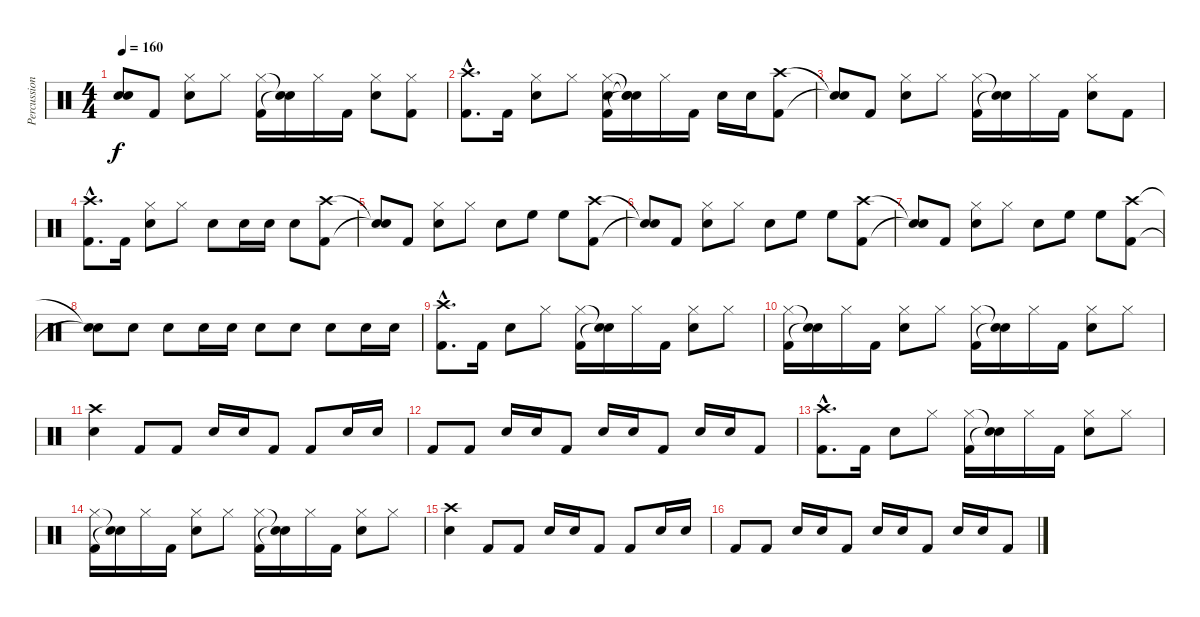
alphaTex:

\track ("Percussion" "Percussion") {instrument percussion}
\staff {score}
\articulation defaults
\ts (4 4)
\tempo 160
\clef neutral
\ks c
("Snare (hit)"{t} "Snare (hit)"{t}).8{dy f} "Kick (hit) 2".8 ("Hi-Hat (closed)" "Snare (hit) 2").8 "Hi-Hat (closed)".8 ("Hi-Hat (closed)" "Kick (hit) 2").16 ("Snare (hit)"{t} "Snare (hit)"{t}).16 "Hi-Hat (closed)".16 "Kick (hit) 2".16 ("Hi-Hat (closed)" "Snare (hit) 2").8 ("Hi-Hat (closed)" "Kick (hit) 2").8 |
("Crash high (hit)"{hac} "Kick (hit) 2"{hac}).8{d} "Kick (hit) 2".16 ("Hi-Hat (closed)" "Snare (hit) 2").8 "Hi-Hat (closed)".8 ("Hi-Hat (closed)" "Snare (hit) 2" "Kick (hit) 2").16 ("Snare (hit)"{t} "Snare (hit)"{t} "Snare (hit)"{t}).16 "Hi-Hat (closed)".16 "Kick (hit) 2".16 "Snare (hit) 2".16 "Snare (hit) 2".16 ("Crash high (hit)" "Kick (hit) 2").8 |
("Snare (hit)"{t} "Snare (hit)"{t}).8 "Kick (hit) 2".8 ("Hi-Hat (closed)" "Snare (hit) 2").8 "Hi-Hat (closed)".8 ("Hi-Hat (closed)" "Kick (hit) 2").16 ("Snare (hit)"{t} "Snare (hit)"{t}).16 "Hi-Hat (closed)".16 "Kick (hit) 2".16 ("Hi-Hat (closed)" "Snare (hit) 2").8 "Kick (hit) 2".8 |
("Crash high (hit)"{hac} "Kick (hit) 2"{hac}).8{d} "Kick (hit) 2".16 ("Hi-Hat (closed)" "Snare (hit) 2").8 "Hi-Hat (closed)".8 "Snare (hit) 2".8 "Snare (hit) 2".16 "Snare (hit) 2".16 "Snare (hit) 2".8 ("Crash high (hit)" "Kick (hit) 2").8 |
("Snare (hit)"{t} "Snare (hit)"{t}).8 "Kick (hit) 2".8 ("Hi-Hat (closed)" "Snare (hit) 2").8 "Hi-Hat (closed)".8 "Snare (hit) 2".8 "High Floor Tom (hit)".8 "High Floor Tom (hit)".8 ("Crash high (hit)" "Kick (hit) 2").8 |
("Snare (hit)"{t} "Snare (hit)"{t}).8 "Kick (hit) 2".8 ("Hi-Hat (closed)" "Snare (hit) 2").8 "Hi-Hat (closed)".8 "Snare (hit) 2".8 "High Floor Tom (hit)".8 "High Floor Tom (hit)".8 ("Crash high (hit)" "Kick (hit) 2").8 |
("Snare (hit)"{t} "Snare (hit)"{t}).8 "Kick (hit) 2".8 ("Hi-Hat (closed)" "Snare (hit) 2").8 "Hi-Hat (closed)".8 "Snare (hit) 2".8 "High Floor Tom (hit)".8 "High Floor Tom (hit)".8 ("Crash high (hit)" "Kick (hit) 2").8 |
("Snare (hit)"{t} "Snare (hit)"{t}).8 "Snare (hit) 2".8 "Snare (hit) 2".8 "Snare (hit) 2".16 "Snare (hit) 2".16 "Snare (hit) 2".8 "Snare (hit) 2".8 "Snare (hit) 2".8 "Snare (hit) 2".16 "Snare (hit) 2".16 |
("Crash high (hit)"{hac} "Kick (hit) 2"{hac}).8{d} "Kick (hit) 2".16 "Snare (hit) 2".8 "Hi-Hat (closed)".8 ("Hi-Hat (closed)" "Kick (hit) 2").16 ("Snare (hit)"{t} "Snare (hit)"{t}).16 "Hi-Hat (closed)".16 "Kick (hit) 2".16 ("Hi-Hat (closed)" "Snare (hit) 2").8 "Hi-Hat (closed)".8 |
("Hi-Hat (closed)" "Kick (hit) 2").16 ("Snare (hit)"{t} "Snare (hit)"{t}).16 "Hi-Hat (closed)".16 "Kick (hit) 2".16 ("Hi-Hat (closed)" "Snare (hit) 2").8 "Hi-Hat (closed)".8 ("Hi-Hat (closed)" "Kick (hit) 2").16 ("Snare (hit)"{t} "Snare (hit)"{t}).16 "Hi-Hat (closed)".16 "Kick (hit) 2".16 ("Hi-Hat (closed)" "Snare (hit) 2").8 "Hi-Hat (closed)".8 |
("Crash high (hit)" "Snare (hit) 2").4 "Kick (hit) 2".8 "Kick (hit) 2".8 "Snare (hit) 2".16 "Snare (hit) 2".16 "Kick (hit) 2".8 "Kick (hit) 2".8 "Snare (hit) 2".16 "Snare (hit) 2".16 |
"Kick (hit) 2".8 "Kick (hit) 2".8 "Snare (hit) 2".16 "Snare (hit) 2".16 "Kick (hit) 2".8 "Snare (hit) 2".16 "Snare (hit) 2".16 "Kick (hit) 2".8 "Snare (hit) 2".16 "Snare (hit) 2".16 "Kick (hit) 2".8 |
("Crash high (hit)"{hac} "Kick (hit) 2"{hac}).8{d} "Kick (hit) 2".16 "Snare (hit) 2".8 "Hi-Hat (closed)".8 ("Hi-Hat (closed)" "Kick (hit) 2").16 ("Snare (hit)"{t} "Snare (hit)"{t}).16 "Hi-Hat (closed)".16 "Kick (hit) 2".16 ("Hi-Hat (closed)" "Snare (hit) 2").8 "Hi-Hat (closed)".8 |
("Hi-Hat (closed)" "Kick (hit) 2").16 ("Snare (hit)"{t} "Snare (hit)"{t}).16 "Hi-Hat (closed)".16 "Kick (hit) 2".16 ("Hi-Hat (closed)" "Snare (hit) 2").8 "Hi-Hat (closed)".8 ("Hi-Hat (closed)" "Kick (hit) 2").16 ("Snare (hit)"{t} "Snare (hit)"{t}).16 "Hi-Hat (closed)".16 "Kick (hit) 2".16 ("Hi-Hat (closed)" "Snare (hit) 2").8 "Hi-Hat (closed)".8 |
("Crash high (hit)" "Snare (hit) 2").4 "Kick (hit) 2".8 "Kick (hit) 2".8 "Snare (hit) 2".16 "Snare (hit) 2".16 "Kick (hit) 2".8 "Kick (hit) 2".8 "Snare (hit) 2".16 "Snare (hit) 2".16 |
"Kick (hit) 2".8 "Kick (hit) 2".8 "Snare (hit) 2".16 "Snare (hit) 2".16 "Kick (hit) 2".8 "Snare (hit) 2".16 "Snare (hit) 2".16 "Kick (hit) 2".8 "Snare (hit) 2".16 "Snare (hit) 2".16 "Kick (hit) 2".8
